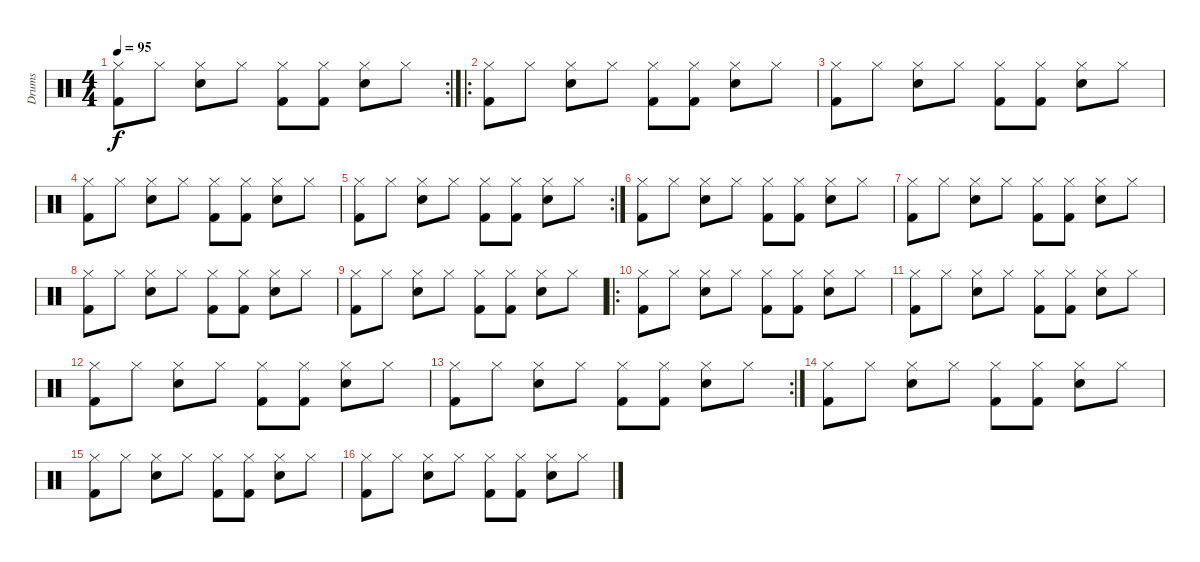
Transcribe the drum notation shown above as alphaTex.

\track ("Drums" "Drums") {instrument percussion}
\staff {score}
\articulation defaults
\rc 2
\ts (4 4)
\tempo 95
\clef neutral
\ks c
("Kick (hit) 2" "Hi-Hat (closed)").8{dy f} "Hi-Hat (closed)".8 ("Electric Snare (hit)" "Hi-Hat (closed)").8 "Hi-Hat (closed)".8 ("Kick (hit) 2" "Hi-Hat (closed)").8 ("Kick (hit) 2" "Hi-Hat (closed)").8 ("Electric Snare (hit)" "Hi-Hat (closed)").8 "Hi-Hat (closed)".8 |
\ro
("Kick (hit) 2" "Hi-Hat (closed)").8 "Hi-Hat (closed)".8 ("Electric Snare (hit)" "Hi-Hat (closed)").8 "Hi-Hat (closed)".8 ("Kick (hit) 2" "Hi-Hat (closed)").8 ("Kick (hit) 2" "Hi-Hat (closed)").8 ("Electric Snare (hit)" "Hi-Hat (closed)").8 "Hi-Hat (closed)".8 |
("Kick (hit) 2" "Hi-Hat (closed)").8 "Hi-Hat (closed)".8 ("Electric Snare (hit)" "Hi-Hat (closed)").8 "Hi-Hat (closed)".8 ("Kick (hit) 2" "Hi-Hat (closed)").8 ("Kick (hit) 2" "Hi-Hat (closed)").8 ("Electric Snare (hit)" "Hi-Hat (closed)").8 "Hi-Hat (closed)".8 |
("Kick (hit) 2" "Hi-Hat (closed)").8 "Hi-Hat (closed)".8 ("Electric Snare (hit)" "Hi-Hat (closed)").8 "Hi-Hat (closed)".8 ("Kick (hit) 2" "Hi-Hat (closed)").8 ("Kick (hit) 2" "Hi-Hat (closed)").8 ("Electric Snare (hit)" "Hi-Hat (closed)").8 "Hi-Hat (closed)".8 |
\rc 2
("Kick (hit) 2" "Hi-Hat (closed)").8 "Hi-Hat (closed)".8 ("Electric Snare (hit)" "Hi-Hat (closed)").8 "Hi-Hat (closed)".8 ("Kick (hit) 2" "Hi-Hat (closed)").8 ("Kick (hit) 2" "Hi-Hat (closed)").8 ("Electric Snare (hit)" "Hi-Hat (closed)").8 "Hi-Hat (closed)".8 |
("Kick (hit) 2" "Hi-Hat (closed)").8 "Hi-Hat (closed)".8 ("Electric Snare (hit)" "Hi-Hat (closed)").8 "Hi-Hat (closed)".8 ("Kick (hit) 2" "Hi-Hat (closed)").8 ("Kick (hit) 2" "Hi-Hat (closed)").8 ("Electric Snare (hit)" "Hi-Hat (closed)").8 "Hi-Hat (closed)".8 |
("Kick (hit) 2" "Hi-Hat (closed)").8 "Hi-Hat (closed)".8 ("Electric Snare (hit)" "Hi-Hat (closed)").8 "Hi-Hat (closed)".8 ("Kick (hit) 2" "Hi-Hat (closed)").8 ("Kick (hit) 2" "Hi-Hat (closed)").8 ("Electric Snare (hit)" "Hi-Hat (closed)").8 "Hi-Hat (closed)".8 |
("Kick (hit) 2" "Hi-Hat (closed)").8 "Hi-Hat (closed)".8 ("Electric Snare (hit)" "Hi-Hat (closed)").8 "Hi-Hat (closed)".8 ("Kick (hit) 2" "Hi-Hat (closed)").8 ("Kick (hit) 2" "Hi-Hat (closed)").8 ("Electric Snare (hit)" "Hi-Hat (closed)").8 "Hi-Hat (closed)".8 |
("Kick (hit) 2" "Hi-Hat (closed)").8 "Hi-Hat (closed)".8 ("Electric Snare (hit)" "Hi-Hat (closed)").8 "Hi-Hat (closed)".8 ("Kick (hit) 2" "Hi-Hat (closed)").8 ("Kick (hit) 2" "Hi-Hat (closed)").8 ("Electric Snare (hit)" "Hi-Hat (closed)").8 "Hi-Hat (closed)".8 |
\ro
("Kick (hit) 2" "Hi-Hat (closed)").8 "Hi-Hat (closed)".8 ("Electric Snare (hit)" "Hi-Hat (closed)").8 "Hi-Hat (closed)".8 ("Kick (hit) 2" "Hi-Hat (closed)").8 ("Kick (hit) 2" "Hi-Hat (closed)").8 ("Electric Snare (hit)" "Hi-Hat (closed)").8 "Hi-Hat (closed)".8 |
("Kick (hit) 2" "Hi-Hat (closed)").8 "Hi-Hat (closed)".8 ("Electric Snare (hit)" "Hi-Hat (closed)").8 "Hi-Hat (closed)".8 ("Kick (hit) 2" "Hi-Hat (closed)").8 ("Kick (hit) 2" "Hi-Hat (closed)").8 ("Electric Snare (hit)" "Hi-Hat (closed)").8 "Hi-Hat (closed)".8 |
("Kick (hit) 2" "Hi-Hat (closed)").8 "Hi-Hat (closed)".8 ("Electric Snare (hit)" "Hi-Hat (closed)").8 "Hi-Hat (closed)".8 ("Kick (hit) 2" "Hi-Hat (closed)").8 ("Kick (hit) 2" "Hi-Hat (closed)").8 ("Electric Snare (hit)" "Hi-Hat (closed)").8 "Hi-Hat (closed)".8 |
\rc 2
("Kick (hit) 2" "Hi-Hat (closed)").8 "Hi-Hat (closed)".8 ("Electric Snare (hit)" "Hi-Hat (closed)").8 "Hi-Hat (closed)".8 ("Kick (hit) 2" "Hi-Hat (closed)").8 ("Kick (hit) 2" "Hi-Hat (closed)").8 ("Electric Snare (hit)" "Hi-Hat (closed)").8 "Hi-Hat (closed)".8 |
("Kick (hit) 2" "Hi-Hat (closed)").8 "Hi-Hat (closed)".8 ("Electric Snare (hit)" "Hi-Hat (closed)").8 "Hi-Hat (closed)".8 ("Kick (hit) 2" "Hi-Hat (closed)").8 ("Kick (hit) 2" "Hi-Hat (closed)").8 ("Electric Snare (hit)" "Hi-Hat (closed)").8 "Hi-Hat (closed)".8 |
("Kick (hit) 2" "Hi-Hat (closed)").8 "Hi-Hat (closed)".8 ("Electric Snare (hit)" "Hi-Hat (closed)").8 "Hi-Hat (closed)".8 ("Kick (hit) 2" "Hi-Hat (closed)").8 ("Kick (hit) 2" "Hi-Hat (closed)").8 ("Electric Snare (hit)" "Hi-Hat (closed)").8 "Hi-Hat (closed)".8 |
("Kick (hit) 2" "Hi-Hat (closed)").8 "Hi-Hat (closed)".8 ("Electric Snare (hit)" "Hi-Hat (closed)").8 "Hi-Hat (closed)".8 ("Kick (hit) 2" "Hi-Hat (closed)").8 ("Kick (hit) 2" "Hi-Hat (closed)").8 ("Electric Snare (hit)" "Hi-Hat (closed)").8 "Hi-Hat (closed)".8
